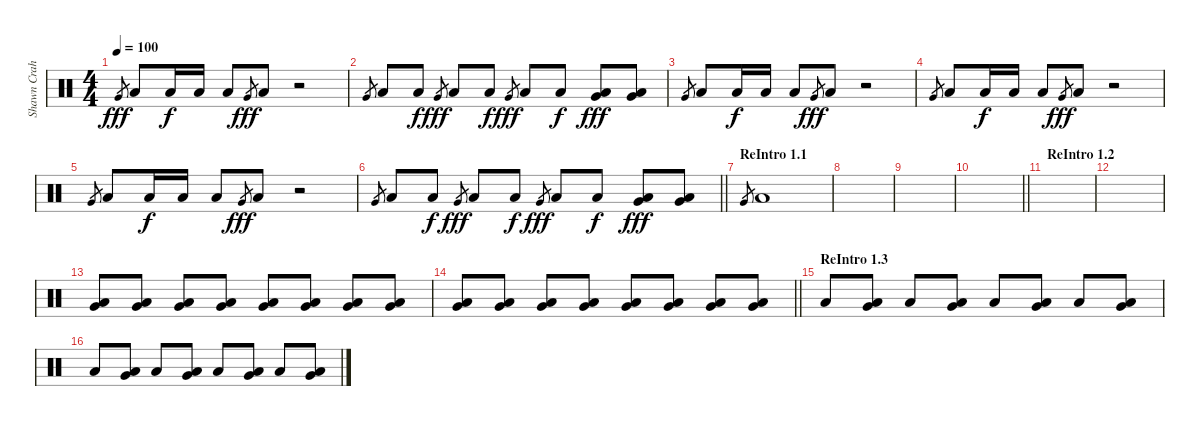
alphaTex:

\track ("Shawn Crahan" "Shawn Crah") {instrument percussion}
\staff {score}
\articulation defaults
\ts (4 4)
\tempo 100
\clef neutral
\ks c "Very Low Tom (hit)".8{gr dy fff} "Low Floor Tom (hit)".8 "Low Floor Tom (hit)".16{dy f} "Low Floor Tom (hit)".16 "Low Floor Tom (hit)".8 "Very Low Tom (hit)".8{gr dy fff} "Low Floor Tom (hit)".8
r.2 |
"Very Low Tom (hit)".8{gr} "Low Floor Tom (hit)".8 "Low Floor Tom (hit)".8{dy f} "Very Low Tom (hit)".8{gr dy fff} "Low Floor Tom (hit)".8 "Low Floor Tom (hit)".8{dy f} "Very Low Tom (hit)".8{gr dy fff} "Low Floor Tom (hit)".8 "Low Floor Tom (hit)".8{dy f} ("Very Low Tom (hit)" "Low Floor Tom (hit)").8{dy fff} ("Very Low Tom (hit)" "Low Floor Tom (hit)").8 |
"Very Low Tom (hit)".8{gr} "Low Floor Tom (hit)".8 "Low Floor Tom (hit)".16{dy f} "Low Floor Tom (hit)".16 "Low Floor Tom (hit)".8 "Very Low Tom (hit)".8{gr dy fff} "Low Floor Tom (hit)".8 r.2 |
"Very Low Tom (hit)".8{gr} "Low Floor Tom (hit)".8 "Low Floor Tom (hit)".16{dy f} "Low Floor Tom (hit)".16 "Low Floor Tom (hit)".8 "Very Low Tom (hit)".8{gr dy fff} "Low Floor Tom (hit)".8 r.2 |
"Very Low Tom (hit)".8{gr} "Low Floor Tom (hit)".8 "Low Floor Tom (hit)".16{dy f} "Low Floor Tom (hit)".16 "Low Floor Tom (hit)".8 "Very Low Tom (hit)".8{gr dy fff} "Low Floor Tom (hit)".8 r.2 |
\barLineRight lightlight "Very Low Tom (hit)".8{gr} "Low Floor Tom (hit)".8 "Low Floor Tom (hit)".8{dy f} "Very Low Tom (hit)".8{gr dy fff} "Low Floor Tom (hit)".8 "Low Floor Tom (hit)".8{dy f} "Very Low Tom (hit)".8{gr dy fff} "Low Floor Tom (hit)".8 "Low Floor Tom (hit)".8{dy f}
("Very Low Tom (hit)" "Low Floor Tom (hit)").8{dy fff} ("Very Low Tom (hit)" "Low Floor Tom (hit)").8 |
\section ("" "ReIntro 1.1")
"Very Low Tom (hit)".8{gr} "Low Floor Tom (hit)".1 |
|
|
\barLineRight lightlight
|
\section ("" "ReIntro 1.2")
|
|
("Very Low Tom (hit)" "Low Floor Tom (hit)").8 ("Very Low Tom (hit)" "Low Floor Tom (hit)").8 ("Very Low Tom (hit)" "Low Floor Tom (hit)").8 ("Very Low Tom (hit)" "Low Floor Tom (hit)").8 ("Very Low Tom (hit)" "Low Floor Tom (hit)").8 ("Very Low Tom (hit)" "Low Floor Tom (hit)").8 ("Very Low Tom (hit)" "Low Floor Tom (hit)").8 ("Very Low Tom (hit)" "Low Floor Tom (hit)").8 |
\barLineRight lightlight
("Very Low Tom (hit)" "Low Floor Tom (hit)").8 ("Very Low Tom (hit)" "Low Floor Tom (hit)").8 ("Very Low Tom (hit)" "Low Floor Tom (hit)").8 ("Very Low Tom (hit)" "Low Floor Tom (hit)").8 ("Very Low Tom (hit)" "Low Floor Tom (hit)").8 ("Very Low Tom (hit)" "Low Floor Tom (hit)").8 ("Very Low Tom (hit)" "Low Floor Tom (hit)").8 ("Very Low Tom (hit)" "Low Floor Tom (hit)").8 |
\section ("" "ReIntro 1.3")
"Low Floor Tom (hit)".8 ("Very Low Tom (hit)" "Low Floor Tom (hit)").8 "Low Floor Tom (hit)".8 ("Very Low Tom (hit)" "Low Floor Tom (hit)").8 "Low Floor Tom (hit)".8 ("Very Low Tom (hit)" "Low Floor Tom (hit)").8 "Low Floor Tom (hit)".8 ("Very Low Tom (hit)" "Low Floor Tom (hit)").8 |
"Low Floor Tom (hit)".8 ("Very Low Tom (hit)" "Low Floor Tom (hit)").8 "Low Floor Tom (hit)".8 ("Very Low Tom (hit)" "Low Floor Tom (hit)").8 "Low Floor Tom (hit)".8 ("Very Low Tom (hit)" "Low Floor Tom (hit)").8 "Low Floor Tom (hit)".8 ("Very Low Tom (hit)" "Low Floor Tom (hit)").8
